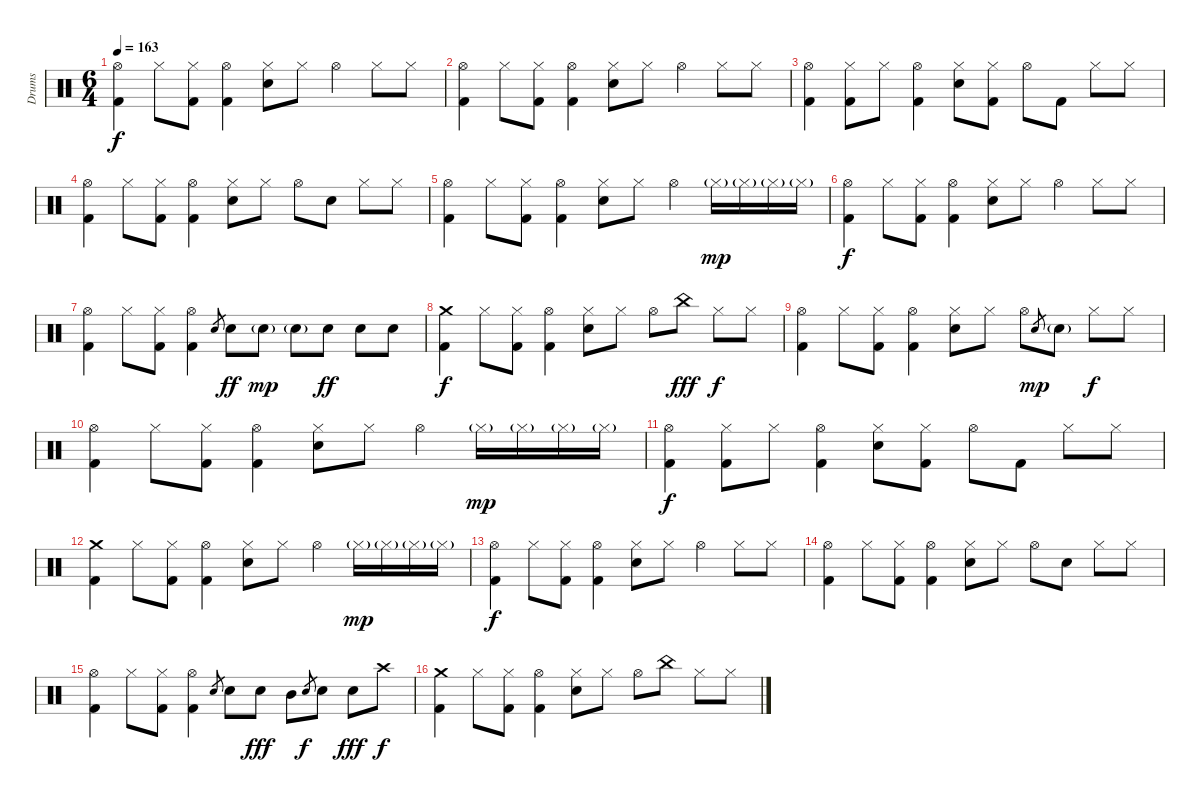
\track ("Drums" "Drums") {instrument percussion}
\staff {score}
\articulation defaults
\ts (6 4)
\tempo 163
\clef neutral
\ks c
("Hi-Hat (open)" "Kick (hit) 2").4{dy f} "Hi-Hat (closed)".8 ("Hi-Hat (closed)" "Kick (hit) 2").8 ("Hi-Hat (open)" "Kick (hit) 2").4 ("Hi-Hat (closed)" "Electric Snare (hit)").8 "Hi-Hat (closed)".8 "Hi-Hat (open)".4 "Hi-Hat (closed)".8 "Hi-Hat (closed)".8 |
("Hi-Hat (open)" "Kick (hit) 2").4 "Hi-Hat (closed)".8 ("Hi-Hat (closed)" "Kick (hit) 2").8 ("Hi-Hat (open)" "Kick (hit) 2").4 ("Hi-Hat (closed)" "Electric Snare (hit)").8 "Hi-Hat (closed)".8 "Hi-Hat (open)".4 "Hi-Hat (closed)".8 "Hi-Hat (closed)".8 |
("Hi-Hat (open)" "Kick (hit) 2").4 ("Hi-Hat (closed)" "Kick (hit) 2").8 "Hi-Hat (closed)".8 ("Hi-Hat (open)" "Kick (hit) 2").4 ("Hi-Hat (closed)" "Electric Snare (hit)").8 ("Hi-Hat (closed)" "Kick (hit) 2").8 "Hi-Hat (open)".8 "Kick (hit) 2".8 "Hi-Hat (closed)".8 "Hi-Hat (closed)".8 |
("Hi-Hat (open)" "Kick (hit) 2").4 "Hi-Hat (closed)".8 ("Hi-Hat (closed)" "Kick (hit) 2").8 ("Hi-Hat (open)" "Kick (hit) 2").4 ("Hi-Hat (closed)" "Electric Snare (hit)").8 "Hi-Hat (closed)".8 "Hi-Hat (open)".8 "Electric Snare (hit)".8 "Hi-Hat (closed)".8 "Hi-Hat (closed)".8 |
("Hi-Hat (open)" "Kick (hit) 2").4 "Hi-Hat (closed)".8 ("Hi-Hat (closed)" "Kick (hit) 2").8 ("Hi-Hat (open)" "Kick (hit) 2").4 ("Hi-Hat (closed)" "Electric Snare (hit)").8 "Hi-Hat (closed)".8 "Hi-Hat (open)".4 "Hi-Hat (closed)"{g}.16{dy mp} "Hi-Hat (closed)"{g}.16 "Hi-Hat (closed)"{g}.16 "Hi-Hat (closed)"{g}.16 |
("Hi-Hat (open)" "Kick (hit) 2").4{dy f} "Hi-Hat (closed)".8 ("Hi-Hat (closed)" "Kick (hit) 2").8 ("Hi-Hat (open)" "Kick (hit) 2").4 ("Hi-Hat (closed)" "Electric Snare (hit)").8 "Hi-Hat (closed)".8 "Hi-Hat (open)".4 "Hi-Hat (closed)".8 "Hi-Hat (closed)".8 |
("Hi-Hat (open)" "Kick (hit) 2").4 "Hi-Hat (closed)".8 ("Hi-Hat (closed)" "Kick (hit) 2").8 ("Hi-Hat (open)" "Kick (hit) 2").4 "Electric Snare (hit)".8{gr} "Electric Snare (hit)".8{dy ff} "Electric Snare (hit)"{g}.8{dy mp} "Electric Snare (hit)"{g}.8 "Electric Snare (hit)".8{dy ff} "Electric Snare (hit)".8 "Electric Snare (hit)".8 |
("Crash medium (hit)" "Kick (hit) 2").4{dy f} "Hi-Hat (closed)".8 ("Hi-Hat (closed)" "Kick (hit) 2").8 ("Hi-Hat (open)" "Kick (hit) 2").4 ("Hi-Hat (closed)" "Electric Snare (hit)").8 "Hi-Hat (closed)".8 "Hi-Hat (open)".8 "China (hit)".8{dy fff} "Hi-Hat (closed)".8{dy f} "Hi-Hat (closed)".8 |
("Hi-Hat (open)" "Kick (hit) 2").4 "Hi-Hat (closed)".8 ("Hi-Hat (closed)" "Kick (hit) 2").8 ("Hi-Hat (open)" "Kick (hit) 2").4 ("Hi-Hat (closed)" "Electric Snare (hit)").8 "Hi-Hat (closed)".8 "Hi-Hat (open)".8 "Electric Snare (hit)".8{gr dy mp} "Electric Snare (hit)"{g}.8 "Hi-Hat (closed)".8{dy f} "Hi-Hat (closed)".8 |
("Hi-Hat (open)" "Kick (hit) 2").4 "Hi-Hat (closed)".8 ("Hi-Hat (closed)" "Kick (hit) 2").8 ("Hi-Hat (open)" "Kick (hit) 2").4 ("Hi-Hat (closed)" "Electric Snare (hit)").8 "Hi-Hat (closed)".8 "Hi-Hat (open)".4 "Hi-Hat (closed)"{g}.16{dy mp} "Hi-Hat (closed)"{g}.16 "Hi-Hat (closed)"{g}.16 "Hi-Hat (closed)"{g}.16 |
("Hi-Hat (open)" "Kick (hit) 2").4{dy f} ("Hi-Hat (closed)" "Kick (hit) 2").8 "Hi-Hat (closed)".8 ("Hi-Hat (open)" "Kick (hit) 2").4 ("Hi-Hat (closed)" "Electric Snare (hit)").8 ("Hi-Hat (closed)" "Kick (hit) 2").8 "Hi-Hat (open)".8 "Kick (hit) 2".8 "Hi-Hat (closed)".8 "Hi-Hat (closed)".8 |
("Crash medium (hit)" "Kick (hit) 2").4 "Hi-Hat (closed)".8 ("Hi-Hat (closed)" "Kick (hit) 2").8 ("Hi-Hat (open)" "Kick (hit) 2").4 ("Hi-Hat (closed)" "Electric Snare (hit)").8 "Hi-Hat (closed)".8 "Hi-Hat (open)".4 "Hi-Hat (closed)"{g}.16{dy mp} "Hi-Hat (closed)"{g}.16 "Hi-Hat (closed)"{g}.16 "Hi-Hat (closed)"{g}.16 |
("Hi-Hat (open)" "Kick (hit) 2").4{dy f} "Hi-Hat (closed)".8 ("Hi-Hat (closed)" "Kick (hit) 2").8 ("Hi-Hat (open)" "Kick (hit) 2").4 ("Hi-Hat (closed)" "Electric Snare (hit)").8 "Hi-Hat (closed)".8 "Hi-Hat (open)".4 "Hi-Hat (closed)".8 "Hi-Hat (closed)".8 |
("Hi-Hat (open)" "Kick (hit) 2").4 "Hi-Hat (closed)".8 ("Hi-Hat (closed)" "Kick (hit) 2").8 ("Hi-Hat (open)" "Kick (hit) 2").4 ("Hi-Hat (closed)" "Electric Snare (hit)").8 "Hi-Hat (closed)".8 "Hi-Hat (open)".8 "Electric Snare (hit)".8 "Hi-Hat (closed)".8 "Hi-Hat (closed)".8 |
("Hi-Hat (open)" "Kick (hit) 2").4 "Hi-Hat (closed)".8 ("Hi-Hat (closed)" "Kick (hit) 2").8 ("Hi-Hat (open)" "Kick (hit) 2").4 "Electric Snare (hit)".8{gr} "Electric Snare (hit)".8 "Electric Snare (hit)".8{dy fff} "Mid Tom (hit)".8 "Electric Snare (hit)".8{gr dy f} "Electric Snare (hit)".8 "Electric Snare (hit)".8{dy fff} "Crash high (hit)".8{dy f} |
("Crash medium (hit)" "Kick (hit) 2").4 "Hi-Hat (closed)".8 ("Hi-Hat (closed)" "Kick (hit) 2").8 ("Hi-Hat (open)" "Kick (hit) 2").4 ("Hi-Hat (closed)" "Electric Snare (hit)").8 "Hi-Hat (closed)".8 "Hi-Hat (open)".8 "China (hit)".8 "Hi-Hat (closed)".8 "Hi-Hat (closed)".8
